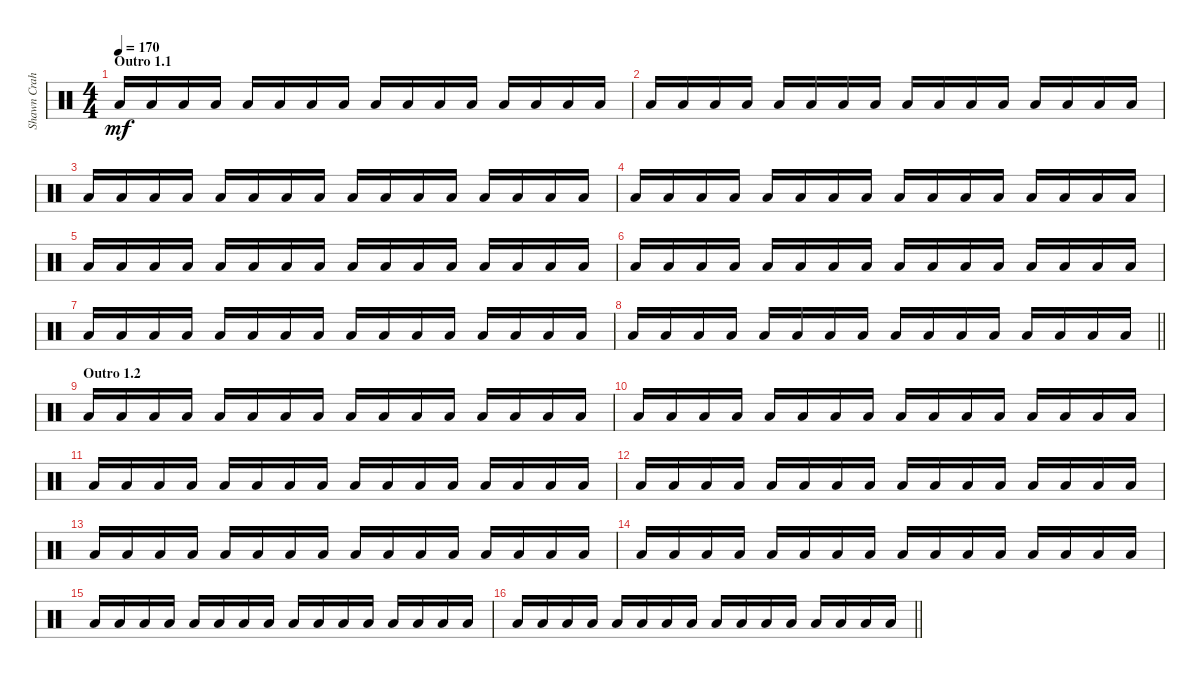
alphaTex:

\track ("Shawn Crahan" "Shawn Crah") {instrument percussion}
\staff {score}
\articulation defaults
\ts (4 4)
\section ("" "Outro 1.1")
\tempo 170
\clef neutral
\ks c "Low Floor Tom (hit)".16{dy mf} "Low Floor Tom (hit)".16 "Low Floor Tom (hit)".16 "Low Floor Tom (hit)".16 "Low Floor Tom (hit)".16 "Low Floor Tom (hit)".16 "Low Floor Tom (hit)".16 "Low Floor Tom (hit)".16 "Low Floor Tom (hit)".16 "Low Floor Tom (hit)".16 "Low Floor Tom (hit)".16 "Low Floor Tom (hit)".16 "Low Floor Tom (hit)".16 "Low Floor Tom (hit)".16 "Low Floor Tom (hit)".16 "Low Floor Tom (hit)".16
|
"Low Floor Tom (hit)".16 "Low Floor Tom (hit)".16 "Low Floor Tom (hit)".16 "Low Floor Tom (hit)".16 "Low Floor Tom (hit)".16 "Low Floor Tom (hit)".16 "Low Floor Tom (hit)".16 "Low Floor Tom (hit)".16 "Low Floor Tom (hit)".16 "Low Floor Tom (hit)".16 "Low Floor Tom (hit)".16 "Low Floor Tom (hit)".16 "Low Floor Tom (hit)".16 "Low Floor Tom (hit)".16 "Low Floor Tom (hit)".16 "Low Floor Tom (hit)".16 |
"Low Floor Tom (hit)".16 "Low Floor Tom (hit)".16 "Low Floor Tom (hit)".16 "Low Floor Tom (hit)".16 "Low Floor Tom (hit)".16 "Low Floor Tom (hit)".16 "Low Floor Tom (hit)".16 "Low Floor Tom (hit)".16 "Low Floor Tom (hit)".16 "Low Floor Tom (hit)".16 "Low Floor Tom (hit)".16 "Low Floor Tom (hit)".16 "Low Floor Tom (hit)".16 "Low Floor Tom (hit)".16 "Low Floor Tom (hit)".16 "Low Floor Tom (hit)".16 |
"Low Floor Tom (hit)".16 "Low Floor Tom (hit)".16 "Low Floor Tom (hit)".16 "Low Floor Tom (hit)".16 "Low Floor Tom (hit)".16 "Low Floor Tom (hit)".16 "Low Floor Tom (hit)".16 "Low Floor Tom (hit)".16 "Low Floor Tom (hit)".16 "Low Floor Tom (hit)".16 "Low Floor Tom (hit)".16 "Low Floor Tom (hit)".16 "Low Floor Tom (hit)".16 "Low Floor Tom (hit)".16 "Low Floor Tom (hit)".16 "Low Floor Tom (hit)".16 |
"Low Floor Tom (hit)".16 "Low Floor Tom (hit)".16 "Low Floor Tom (hit)".16 "Low Floor Tom (hit)".16 "Low Floor Tom (hit)".16 "Low Floor Tom (hit)".16 "Low Floor Tom (hit)".16 "Low Floor Tom (hit)".16 "Low Floor Tom (hit)".16 "Low Floor Tom (hit)".16 "Low Floor Tom (hit)".16 "Low Floor Tom (hit)".16 "Low Floor Tom (hit)".16 "Low Floor Tom (hit)".16 "Low Floor Tom (hit)".16 "Low Floor Tom (hit)".16 |
"Low Floor Tom (hit)".16 "Low Floor Tom (hit)".16 "Low Floor Tom (hit)".16 "Low Floor Tom (hit)".16 "Low Floor Tom (hit)".16 "Low Floor Tom (hit)".16 "Low Floor Tom (hit)".16 "Low Floor Tom (hit)".16 "Low Floor Tom (hit)".16 "Low Floor Tom (hit)".16 "Low Floor Tom (hit)".16 "Low Floor Tom (hit)".16 "Low Floor Tom (hit)".16 "Low Floor Tom (hit)".16 "Low Floor Tom (hit)".16 "Low Floor Tom (hit)".16 |
"Low Floor Tom (hit)".16 "Low Floor Tom (hit)".16 "Low Floor Tom (hit)".16 "Low Floor Tom (hit)".16 "Low Floor Tom (hit)".16 "Low Floor Tom (hit)".16 "Low Floor Tom (hit)".16 "Low Floor Tom (hit)".16 "Low Floor Tom (hit)".16 "Low Floor Tom (hit)".16 "Low Floor Tom (hit)".16 "Low Floor Tom (hit)".16 "Low Floor Tom (hit)".16 "Low Floor Tom (hit)".16 "Low Floor Tom (hit)".16 "Low Floor Tom (hit)".16 |
\barLineRight lightlight "Low Floor Tom (hit)".16 "Low Floor Tom (hit)".16 "Low Floor Tom (hit)".16 "Low Floor Tom (hit)".16 "Low Floor Tom (hit)".16 "Low Floor Tom (hit)".16 "Low Floor Tom (hit)".16 "Low Floor Tom (hit)".16 "Low Floor Tom (hit)".16 "Low Floor Tom (hit)".16 "Low Floor Tom (hit)".16 "Low Floor Tom (hit)".16 "Low Floor Tom (hit)".16 "Low Floor Tom (hit)".16 "Low Floor Tom (hit)".16 "Low Floor Tom (hit)".16
|
\section ("" "Outro 1.2")
"Low Floor Tom (hit)".16 "Low Floor Tom (hit)".16 "Low Floor Tom (hit)".16 "Low Floor Tom (hit)".16 "Low Floor Tom (hit)".16 "Low Floor Tom (hit)".16 "Low Floor Tom (hit)".16 "Low Floor Tom (hit)".16 "Low Floor Tom (hit)".16 "Low Floor Tom (hit)".16 "Low Floor Tom (hit)".16 "Low Floor Tom (hit)".16 "Low Floor Tom (hit)".16 "Low Floor Tom (hit)".16 "Low Floor Tom (hit)".16 "Low Floor Tom (hit)".16 |
"Low Floor Tom (hit)".16 "Low Floor Tom (hit)".16 "Low Floor Tom (hit)".16 "Low Floor Tom (hit)".16 "Low Floor Tom (hit)".16 "Low Floor Tom (hit)".16 "Low Floor Tom (hit)".16 "Low Floor Tom (hit)".16 "Low Floor Tom (hit)".16 "Low Floor Tom (hit)".16 "Low Floor Tom (hit)".16 "Low Floor Tom (hit)".16 "Low Floor Tom (hit)".16 "Low Floor Tom (hit)".16 "Low Floor Tom (hit)".16 "Low Floor Tom (hit)".16 |
"Low Floor Tom (hit)".16 "Low Floor Tom (hit)".16 "Low Floor Tom (hit)".16 "Low Floor Tom (hit)".16 "Low Floor Tom (hit)".16 "Low Floor Tom (hit)".16 "Low Floor Tom (hit)".16 "Low Floor Tom (hit)".16 "Low Floor Tom (hit)".16 "Low Floor Tom (hit)".16 "Low Floor Tom (hit)".16 "Low Floor Tom (hit)".16 "Low Floor Tom (hit)".16 "Low Floor Tom (hit)".16 "Low Floor Tom (hit)".16 "Low Floor Tom (hit)".16 |
"Low Floor Tom (hit)".16 "Low Floor Tom (hit)".16 "Low Floor Tom (hit)".16 "Low Floor Tom (hit)".16 "Low Floor Tom (hit)".16 "Low Floor Tom (hit)".16 "Low Floor Tom (hit)".16 "Low Floor Tom (hit)".16 "Low Floor Tom (hit)".16 "Low Floor Tom (hit)".16 "Low Floor Tom (hit)".16 "Low Floor Tom (hit)".16 "Low Floor Tom (hit)".16 "Low Floor Tom (hit)".16 "Low Floor Tom (hit)".16 "Low Floor Tom (hit)".16 |
"Low Floor Tom (hit)".16 "Low Floor Tom (hit)".16 "Low Floor Tom (hit)".16 "Low Floor Tom (hit)".16 "Low Floor Tom (hit)".16 "Low Floor Tom (hit)".16 "Low Floor Tom (hit)".16 "Low Floor Tom (hit)".16 "Low Floor Tom (hit)".16 "Low Floor Tom (hit)".16 "Low Floor Tom (hit)".16 "Low Floor Tom (hit)".16 "Low Floor Tom (hit)".16 "Low Floor Tom (hit)".16 "Low Floor Tom (hit)".16 "Low Floor Tom (hit)".16 |
"Low Floor Tom (hit)".16 "Low Floor Tom (hit)".16 "Low Floor Tom (hit)".16 "Low Floor Tom (hit)".16 "Low Floor Tom (hit)".16 "Low Floor Tom (hit)".16 "Low Floor Tom (hit)".16 "Low Floor Tom (hit)".16 "Low Floor Tom (hit)".16 "Low Floor Tom (hit)".16 "Low Floor Tom (hit)".16 "Low Floor Tom (hit)".16 "Low Floor Tom (hit)".16 "Low Floor Tom (hit)".16 "Low Floor Tom (hit)".16 "Low Floor Tom (hit)".16 |
"Low Floor Tom (hit)".16 "Low Floor Tom (hit)".16 "Low Floor Tom (hit)".16 "Low Floor Tom (hit)".16 "Low Floor Tom (hit)".16 "Low Floor Tom (hit)".16 "Low Floor Tom (hit)".16 "Low Floor Tom (hit)".16 "Low Floor Tom (hit)".16 "Low Floor Tom (hit)".16 "Low Floor Tom (hit)".16 "Low Floor Tom (hit)".16 "Low Floor Tom (hit)".16 "Low Floor Tom (hit)".16 "Low Floor Tom (hit)".16 "Low Floor Tom (hit)".16 |
\barLineRight lightlight "Low Floor Tom (hit)".16 "Low Floor Tom (hit)".16 "Low Floor Tom (hit)".16 "Low Floor Tom (hit)".16 "Low Floor Tom (hit)".16 "Low Floor Tom (hit)".16 "Low Floor Tom (hit)".16 "Low Floor Tom (hit)".16 "Low Floor Tom (hit)".16 "Low Floor Tom (hit)".16 "Low Floor Tom (hit)".16 "Low Floor Tom (hit)".16 "Low Floor Tom (hit)".16 "Low Floor Tom (hit)".16 "Low Floor Tom (hit)".16 "Low Floor Tom (hit)".16
